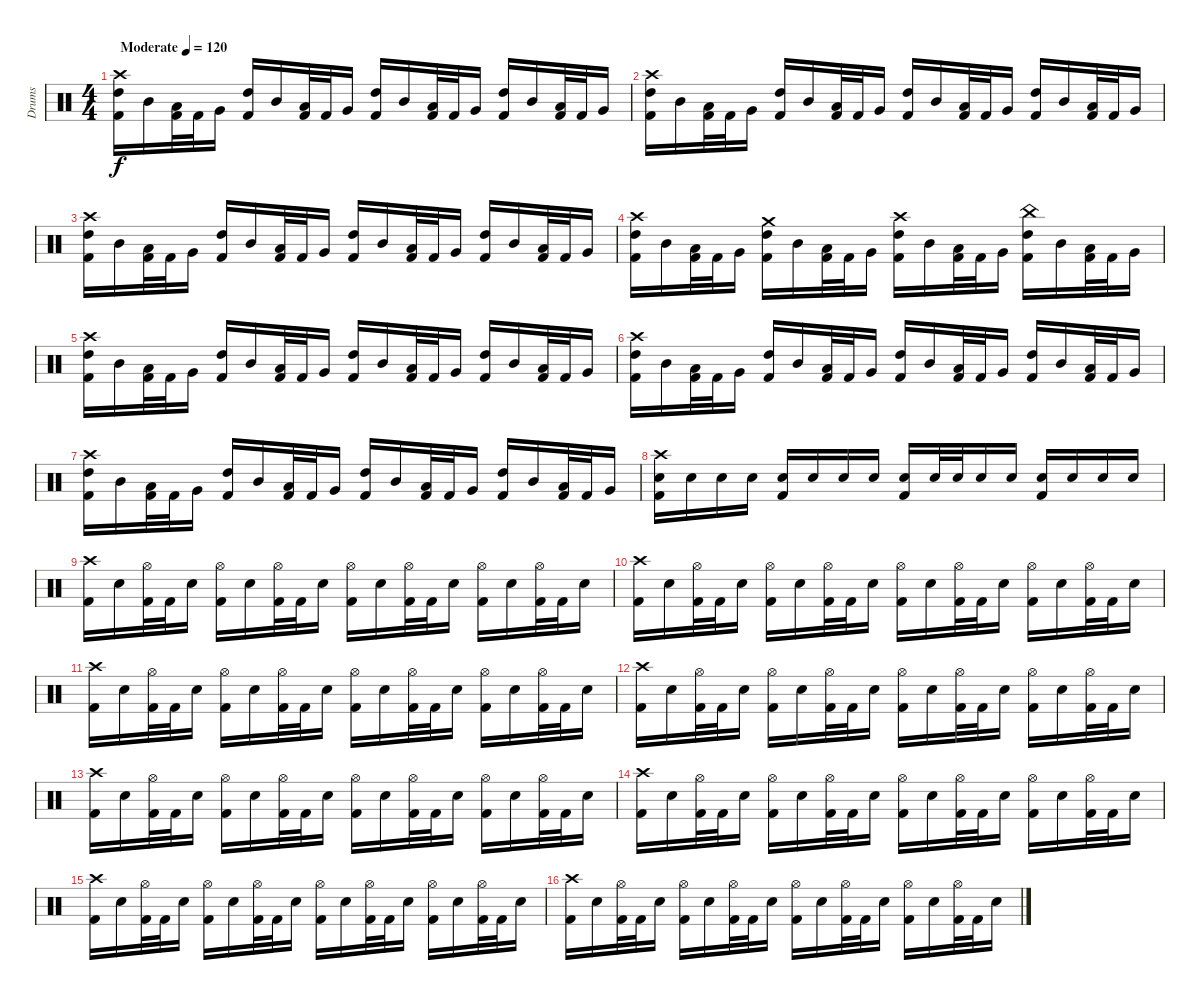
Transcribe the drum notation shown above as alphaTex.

\track ("Drums" "Drums") {instrument percussion}
\staff {score}
\articulation defaults
\ts (4 4)
\tempo (120 "Moderate")
\clef neutral
\ks c
("Crash high (hit)" "High Tom (hit)" "Kick (hit) 2").16{dy f} "Mid Tom (hit)".16 ("Low Tom (hit)" "Kick (hit) 2").32 "Kick (hit) 2".32 "Very Low Tom (hit)".16 ("High Tom (hit)" "Kick (hit) 2").16 "Mid Tom (hit)".16 ("Low Tom (hit)" "Kick (hit) 2").32 "Kick (hit) 2".32 "Very Low Tom (hit)".16 ("High Tom (hit)" "Kick (hit) 2").16 "Mid Tom (hit)".16 ("Low Tom (hit)" "Kick (hit) 2").32 "Kick (hit) 2".32 "Very Low Tom (hit)".16 ("High Tom (hit)" "Kick (hit) 2").16 "Mid Tom (hit)".16 ("Low Tom (hit)" "Kick (hit) 2").32 "Kick (hit) 2".32 "Very Low Tom (hit)".16 |
("Crash high (hit)" "High Tom (hit)" "Kick (hit) 2").16 "Mid Tom (hit)".16 ("Low Tom (hit)" "Kick (hit) 2").32 "Kick (hit) 2".32 "Very Low Tom (hit)".16 ("High Tom (hit)" "Kick (hit) 2").16 "Mid Tom (hit)".16 ("Low Tom (hit)" "Kick (hit) 2").32 "Kick (hit) 2".32 "Very Low Tom (hit)".16 ("High Tom (hit)" "Kick (hit) 2").16 "Mid Tom (hit)".16 ("Low Tom (hit)" "Kick (hit) 2").32 "Kick (hit) 2".32 "Very Low Tom (hit)".16 ("High Tom (hit)" "Kick (hit) 2").16 "Mid Tom (hit)".16 ("Low Tom (hit)" "Kick (hit) 2").32 "Kick (hit) 2".32 "Very Low Tom (hit)".16 |
("Crash high (hit)" "High Tom (hit)" "Kick (hit) 2").16 "Mid Tom (hit)".16 ("Low Tom (hit)" "Kick (hit) 2").32 "Kick (hit) 2".32 "Very Low Tom (hit)".16 ("High Tom (hit)" "Kick (hit) 2").16 "Mid Tom (hit)".16 ("Low Tom (hit)" "Kick (hit) 2").32 "Kick (hit) 2".32 "Very Low Tom (hit)".16 ("High Tom (hit)" "Kick (hit) 2").16 "Mid Tom (hit)".16 ("Low Tom (hit)" "Kick (hit) 2").32 "Kick (hit) 2".32 "Very Low Tom (hit)".16 ("High Tom (hit)" "Kick (hit) 2").16 "Mid Tom (hit)".16 ("Low Tom (hit)" "Kick (hit) 2").32 "Kick (hit) 2".32 "Very Low Tom (hit)".16 |
("Crash high (hit)" "High Tom (hit)" "Kick (hit) 2").16 "Mid Tom (hit)".16 ("Low Tom (hit)" "Kick (hit) 2").32 "Kick (hit) 2".32 "Very Low Tom (hit)".16 ("Crash medium (hit)" "High Tom (hit)" "Kick (hit) 2").16 "Mid Tom (hit)".16 ("Low Tom (hit)" "Kick (hit) 2").32 "Kick (hit) 2".32 "Very Low Tom (hit)".16 ("Crash high (hit)" "High Tom (hit)" "Kick (hit) 2").16 "Mid Tom (hit)".16 ("Low Tom (hit)" "Kick (hit) 2").32 "Kick (hit) 2".32 "Very Low Tom (hit)".16 ("China (hit)" "High Tom (hit)" "Kick (hit) 2").16 "Mid Tom (hit)".16 ("Low Tom (hit)" "Kick (hit) 2").32 "Kick (hit) 2".32 "Very Low Tom (hit)".16 |
("Crash high (hit)" "High Tom (hit)" "Kick (hit) 2").16 "Mid Tom (hit)".16 ("Low Tom (hit)" "Kick (hit) 2").32 "Kick (hit) 2".32 "Very Low Tom (hit)".16 ("High Tom (hit)" "Kick (hit) 2").16 "Mid Tom (hit)".16 ("Low Tom (hit)" "Kick (hit) 2").32 "Kick (hit) 2".32 "Very Low Tom (hit)".16 ("High Tom (hit)" "Kick (hit) 2").16 "Mid Tom (hit)".16 ("Low Tom (hit)" "Kick (hit) 2").32 "Kick (hit) 2".32 "Very Low Tom (hit)".16 ("High Tom (hit)" "Kick (hit) 2").16 "Mid Tom (hit)".16 ("Low Tom (hit)" "Kick (hit) 2").32 "Kick (hit) 2".32 "Very Low Tom (hit)".16 |
("Crash high (hit)" "High Tom (hit)" "Kick (hit) 2").16 "Mid Tom (hit)".16 ("Low Tom (hit)" "Kick (hit) 2").32 "Kick (hit) 2".32 "Very Low Tom (hit)".16 ("High Tom (hit)" "Kick (hit) 2").16 "Mid Tom (hit)".16 ("Low Tom (hit)" "Kick (hit) 2").32 "Kick (hit) 2".32 "Very Low Tom (hit)".16 ("High Tom (hit)" "Kick (hit) 2").16 "Mid Tom (hit)".16 ("Low Tom (hit)" "Kick (hit) 2").32 "Kick (hit) 2".32 "Very Low Tom (hit)".16 ("High Tom (hit)" "Kick (hit) 2").16 "Mid Tom (hit)".16 ("Low Tom (hit)" "Kick (hit) 2").32 "Kick (hit) 2".32 "Very Low Tom (hit)".16 |
("Crash high (hit)" "High Tom (hit)" "Kick (hit) 2").16 "Mid Tom (hit)".16 ("Low Tom (hit)" "Kick (hit) 2").32 "Kick (hit) 2".32 "Very Low Tom (hit)".16 ("High Tom (hit)" "Kick (hit) 2").16 "Mid Tom (hit)".16 ("Low Tom (hit)" "Kick (hit) 2").32 "Kick (hit) 2".32 "Very Low Tom (hit)".16 ("High Tom (hit)" "Kick (hit) 2").16 "Mid Tom (hit)".16 ("Low Tom (hit)" "Kick (hit) 2").32 "Kick (hit) 2".32 "Very Low Tom (hit)".16 ("High Tom (hit)" "Kick (hit) 2").16 "Mid Tom (hit)".16 ("Low Tom (hit)" "Kick (hit) 2").32 "Kick (hit) 2".32 "Very Low Tom (hit)".16 |
("Crash high (hit)" "Electric Snare (hit)" "Kick (hit) 2").16 "Electric Snare (hit)".16 "Electric Snare (hit)".16 "Electric Snare (hit)".16 ("Electric Snare (hit)" "Kick (hit) 2").16 "Electric Snare (hit)".16 "Electric Snare (hit)".16 "Electric Snare (hit)".16 ("Electric Snare (hit)" "Kick (hit) 2").16 "Electric Snare (hit)".32 "Electric Snare (hit)".32 "Electric Snare (hit)".16 "Electric Snare (hit)".16 ("Electric Snare (hit)" "Kick (hit) 2").16 "Electric Snare (hit)".16 "Electric Snare (hit)".16 "Electric Snare (hit)".16 |
("Crash high (hit)" "Kick (hit) 2").16 "Electric Snare (hit)".16 ("Hi-Hat (open)" "Kick (hit) 2").32 "Kick (hit) 2".32 "Electric Snare (hit)".16 ("Hi-Hat (open)" "Kick (hit) 2").16 "Electric Snare (hit)".16 ("Hi-Hat (open)" "Kick (hit) 2").32 "Kick (hit) 2".32 "Electric Snare (hit)".16 ("Hi-Hat (open)" "Kick (hit) 2").16 "Electric Snare (hit)".16 ("Hi-Hat (open)" "Kick (hit) 2").32 "Kick (hit) 2".32 "Electric Snare (hit)".16 ("Hi-Hat (open)" "Kick (hit) 2").16 "Electric Snare (hit)".16 ("Hi-Hat (open)" "Kick (hit) 2").32 "Kick (hit) 2".32 "Electric Snare (hit)".16 |
("Crash high (hit)" "Kick (hit) 2").16 "Electric Snare (hit)".16 ("Hi-Hat (open)" "Kick (hit) 2").32 "Kick (hit) 2".32 "Electric Snare (hit)".16 ("Hi-Hat (open)" "Kick (hit) 2").16 "Electric Snare (hit)".16 ("Hi-Hat (open)" "Kick (hit) 2").32 "Kick (hit) 2".32 "Electric Snare (hit)".16 ("Hi-Hat (open)" "Kick (hit) 2").16 "Electric Snare (hit)".16 ("Hi-Hat (open)" "Kick (hit) 2").32 "Kick (hit) 2".32 "Electric Snare (hit)".16 ("Hi-Hat (open)" "Kick (hit) 2").16 "Electric Snare (hit)".16 ("Hi-Hat (open)" "Kick (hit) 2").32 "Kick (hit) 2".32 "Electric Snare (hit)".16 |
("Crash high (hit)" "Kick (hit) 2").16 "Electric Snare (hit)".16 ("Hi-Hat (open)" "Kick (hit) 2").32 "Kick (hit) 2".32 "Electric Snare (hit)".16 ("Hi-Hat (open)" "Kick (hit) 2").16 "Electric Snare (hit)".16 ("Hi-Hat (open)" "Kick (hit) 2").32 "Kick (hit) 2".32 "Electric Snare (hit)".16 ("Hi-Hat (open)" "Kick (hit) 2").16 "Electric Snare (hit)".16 ("Hi-Hat (open)" "Kick (hit) 2").32 "Kick (hit) 2".32 "Electric Snare (hit)".16 ("Hi-Hat (open)" "Kick (hit) 2").16 "Electric Snare (hit)".16 ("Hi-Hat (open)" "Kick (hit) 2").32 "Kick (hit) 2".32 "Electric Snare (hit)".16 |
("Crash high (hit)" "Kick (hit) 2").16 "Electric Snare (hit)".16 ("Hi-Hat (open)" "Kick (hit) 2").32 "Kick (hit) 2".32 "Electric Snare (hit)".16 ("Hi-Hat (open)" "Kick (hit) 2").16 "Electric Snare (hit)".16 ("Hi-Hat (open)" "Kick (hit) 2").32 "Kick (hit) 2".32 "Electric Snare (hit)".16 ("Hi-Hat (open)" "Kick (hit) 2").16 "Electric Snare (hit)".16 ("Hi-Hat (open)" "Kick (hit) 2").32 "Kick (hit) 2".32 "Electric Snare (hit)".16 ("Hi-Hat (open)" "Kick (hit) 2").16 "Electric Snare (hit)".16 ("Hi-Hat (open)" "Kick (hit) 2").32 "Kick (hit) 2".32 "Electric Snare (hit)".16 |
("Crash high (hit)" "Kick (hit) 2").16 "Electric Snare (hit)".16 ("Hi-Hat (open)" "Kick (hit) 2").32 "Kick (hit) 2".32 "Electric Snare (hit)".16 ("Hi-Hat (open)" "Kick (hit) 2").16 "Electric Snare (hit)".16 ("Hi-Hat (open)" "Kick (hit) 2").32 "Kick (hit) 2".32 "Electric Snare (hit)".16 ("Hi-Hat (open)" "Kick (hit) 2").16 "Electric Snare (hit)".16 ("Hi-Hat (open)" "Kick (hit) 2").32 "Kick (hit) 2".32 "Electric Snare (hit)".16 ("Hi-Hat (open)" "Kick (hit) 2").16 "Electric Snare (hit)".16 ("Hi-Hat (open)" "Kick (hit) 2").32 "Kick (hit) 2".32 "Electric Snare (hit)".16 |
("Crash high (hit)" "Kick (hit) 2").16 "Electric Snare (hit)".16 ("Hi-Hat (open)" "Kick (hit) 2").32 "Kick (hit) 2".32 "Electric Snare (hit)".16 ("Hi-Hat (open)" "Kick (hit) 2").16 "Electric Snare (hit)".16 ("Hi-Hat (open)" "Kick (hit) 2").32 "Kick (hit) 2".32 "Electric Snare (hit)".16 ("Hi-Hat (open)" "Kick (hit) 2").16 "Electric Snare (hit)".16 ("Hi-Hat (open)" "Kick (hit) 2").32 "Kick (hit) 2".32 "Electric Snare (hit)".16 ("Hi-Hat (open)" "Kick (hit) 2").16 "Electric Snare (hit)".16 ("Hi-Hat (open)" "Kick (hit) 2").32 "Kick (hit) 2".32 "Electric Snare (hit)".16 |
("Crash high (hit)" "Kick (hit) 2").16 "Electric Snare (hit)".16 ("Hi-Hat (open)" "Kick (hit) 2").32 "Kick (hit) 2".32 "Electric Snare (hit)".16 ("Hi-Hat (open)" "Kick (hit) 2").16 "Electric Snare (hit)".16 ("Hi-Hat (open)" "Kick (hit) 2").32 "Kick (hit) 2".32 "Electric Snare (hit)".16 ("Hi-Hat (open)" "Kick (hit) 2").16 "Electric Snare (hit)".16 ("Hi-Hat (open)" "Kick (hit) 2").32 "Kick (hit) 2".32 "Electric Snare (hit)".16 ("Hi-Hat (open)" "Kick (hit) 2").16 "Electric Snare (hit)".16 ("Hi-Hat (open)" "Kick (hit) 2").32 "Kick (hit) 2".32 "Electric Snare (hit)".16 |
("Crash high (hit)" "Kick (hit) 2").16 "Electric Snare (hit)".16 ("Hi-Hat (open)" "Kick (hit) 2").32 "Kick (hit) 2".32 "Electric Snare (hit)".16 ("Hi-Hat (open)" "Kick (hit) 2").16 "Electric Snare (hit)".16 ("Hi-Hat (open)" "Kick (hit) 2").32 "Kick (hit) 2".32 "Electric Snare (hit)".16 ("Hi-Hat (open)" "Kick (hit) 2").16 "Electric Snare (hit)".16 ("Hi-Hat (open)" "Kick (hit) 2").32 "Kick (hit) 2".32 "Electric Snare (hit)".16 ("Hi-Hat (open)" "Kick (hit) 2").16 "Electric Snare (hit)".16 ("Hi-Hat (open)" "Kick (hit) 2").32 "Kick (hit) 2".32 "Electric Snare (hit)".16
